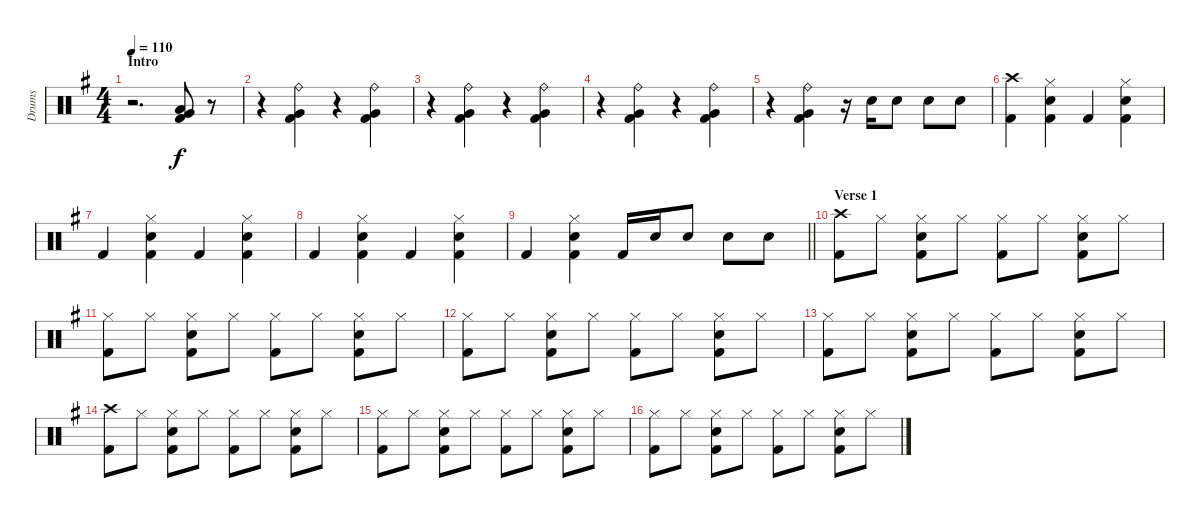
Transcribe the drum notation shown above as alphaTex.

\track ("Drums" "Drums") {instrument percussion}
\staff {score}
\articulation defaults
\ts (4 4)
\section ("" "Intro")
\tempo 110
\clef neutral
\ks g
r.2{d dy f} ("Low Tom (hit)" "Very Low Tom (hit)" "Kick (hit) 2").8 r.8 |
r.4 ("Ride (bell)" "Very Low Tom (hit)" "Kick (hit) 2").4 r.4 ("Ride (bell)" "Very Low Tom (hit)" "Kick (hit) 2").4 |
r.4 ("Ride (bell)" "Very Low Tom (hit)" "Kick (hit) 2").4 r.4 ("Ride (bell)" "Very Low Tom (hit)" "Kick (hit) 2").4 |
r.4 ("Ride (bell)" "Very Low Tom (hit)" "Kick (hit) 2").4 r.4 ("Ride (bell)" "Very Low Tom (hit)" "Kick (hit) 2").4 |
r.4 ("Ride (bell)" "Very Low Tom (hit)" "Kick (hit) 2").4 r.16 "Snare (hit) 2".16 "Snare (hit) 2".8 "Snare (hit) 2".8 "Snare (hit) 2".8 |
("Crash high (hit)" "Kick (hit) 2").4 ("Hi-Hat (closed)" "Snare (hit) 2" "Kick (hit) 2").4 "Kick (hit) 2".4 ("Hi-Hat (closed)" "Snare (hit) 2" "Kick (hit) 2").4 |
"Kick (hit) 2".4 ("Hi-Hat (closed)" "Snare (hit) 2" "Kick (hit) 2").4 "Kick (hit) 2".4 ("Hi-Hat (closed)" "Snare (hit) 2" "Kick (hit) 2").4 |
"Kick (hit) 2".4 ("Hi-Hat (closed)" "Snare (hit) 2" "Kick (hit) 2").4 "Kick (hit) 2".4 ("Hi-Hat (closed)" "Snare (hit) 2" "Kick (hit) 2").4 |
\barLineRight lightlight "Kick (hit) 2".4
("Hi-Hat (closed)" "Snare (hit) 2" "Kick (hit) 2").4 "Kick (hit) 2".16 "Snare (hit) 2".16 "Snare (hit) 2".8 "Snare (hit) 2".8 "Snare (hit) 2".8 |
\section ("" "Verse 1")
("Crash high (hit)" "Kick (hit) 2").8 "Hi-Hat (closed)".8 ("Hi-Hat (closed)" "Snare (hit) 2" "Kick (hit) 2").8 "Hi-Hat (closed)".8 ("Hi-Hat (closed)" "Kick (hit) 2").8 "Hi-Hat (closed)".8 ("Hi-Hat (closed)" "Snare (hit) 2" "Kick (hit) 2").8 "Hi-Hat (closed)".8 |
("Hi-Hat (closed)" "Kick (hit) 2").8 "Hi-Hat (closed)".8 ("Hi-Hat (closed)" "Snare (hit) 2" "Kick (hit) 2").8 "Hi-Hat (closed)".8 ("Hi-Hat (closed)" "Kick (hit) 2").8 "Hi-Hat (closed)".8 ("Hi-Hat (closed)" "Snare (hit) 2" "Kick (hit) 2").8 "Hi-Hat (closed)".8 |
("Hi-Hat (closed)" "Kick (hit) 2").8 "Hi-Hat (closed)".8 ("Hi-Hat (closed)" "Snare (hit) 2" "Kick (hit) 2").8 "Hi-Hat (closed)".8 ("Hi-Hat (closed)" "Kick (hit) 2").8 "Hi-Hat (closed)".8 ("Hi-Hat (closed)" "Snare (hit) 2" "Kick (hit) 2").8 "Hi-Hat (closed)".8 |
("Hi-Hat (closed)" "Kick (hit) 2").8 "Hi-Hat (closed)".8 ("Hi-Hat (closed)" "Snare (hit) 2" "Kick (hit) 2").8 "Hi-Hat (closed)".8 ("Hi-Hat (closed)" "Kick (hit) 2").8 "Hi-Hat (closed)".8 ("Hi-Hat (closed)" "Snare (hit) 2" "Kick (hit) 2").8 "Hi-Hat (closed)".8 |
("Crash high (hit)" "Kick (hit) 2").8 "Hi-Hat (closed)".8 ("Hi-Hat (closed)" "Snare (hit) 2" "Kick (hit) 2").8 "Hi-Hat (closed)".8 ("Hi-Hat (closed)" "Kick (hit) 2").8 "Hi-Hat (closed)".8 ("Hi-Hat (closed)" "Snare (hit) 2" "Kick (hit) 2").8 "Hi-Hat (closed)".8 |
("Hi-Hat (closed)" "Kick (hit) 2").8 "Hi-Hat (closed)".8 ("Hi-Hat (closed)" "Snare (hit) 2" "Kick (hit) 2").8 "Hi-Hat (closed)".8 ("Hi-Hat (closed)" "Kick (hit) 2").8 "Hi-Hat (closed)".8 ("Hi-Hat (closed)" "Snare (hit) 2" "Kick (hit) 2").8 "Hi-Hat (closed)".8 |
("Hi-Hat (closed)" "Kick (hit) 2").8 "Hi-Hat (closed)".8 ("Hi-Hat (closed)" "Snare (hit) 2" "Kick (hit) 2").8 "Hi-Hat (closed)".8 ("Hi-Hat (closed)" "Kick (hit) 2").8 "Hi-Hat (closed)".8 ("Hi-Hat (closed)" "Snare (hit) 2" "Kick (hit) 2").8 "Hi-Hat (closed)".8
